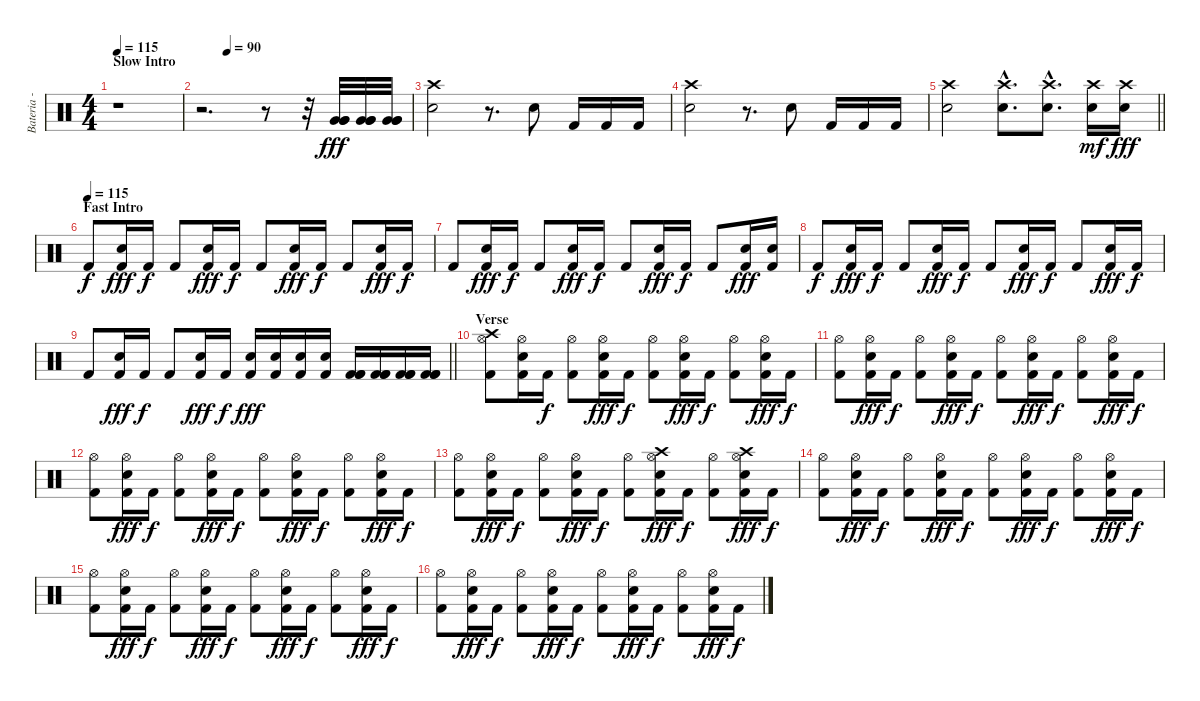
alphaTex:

\track ("Bateria - Larzon" "Bateria - ") {instrument percussion}
\staff {score}
\articulation defaults
\ts (4 4)
\section ("" "Slow Intro")
\tempo 115
\clef neutral
\ks c
r.1{dy fff} |
\tempo (90 0.125)
r.2{d} r.8 r.32 ("Very Low Tom (hit)" "Very Low Tom (hit)" "Very Low Tom (hit)").32 ("Very Low Tom (hit)" "Very Low Tom (hit)" "Very Low Tom (hit)").32 ("Very Low Tom (hit)" "Very Low Tom (hit)" "Very Low Tom (hit)").32 |
("Crash high (hit)" "Electric Snare (hit)").2 r.8{d} "Electric Snare (hit)".8 "Kick (hit) 2".16 "Kick (hit) 2".16 "Kick (hit) 2".16 |
("Crash high (hit)" "Electric Snare (hit)").2 r.8{d} "Electric Snare (hit)".8 "Kick (hit) 2".16 "Kick (hit) 2".16 "Kick (hit) 2".16 |
\barLineRight lightlight
("Crash high (hit)" "Electric Snare (hit)").2 ("Crash high (hit)"{hac} "Electric Snare (hit)"{hac}).8{d} ("Crash high (hit)"{hac} "Electric Snare (hit)"{hac}).8{d} ("Crash high (hit)" "Electric Snare (hit)").16{dy mf} ("Crash high (hit)" "Electric Snare (hit)").16{dy fff} |
\section ("" "Fast Intro")
\tempo (115)
"Kick (hit) 2".8{dy f} ("Kick (hit) 2" "Electric Snare (hit)").16{dy fff} "Kick (hit) 2".16{dy f} "Kick (hit) 2".8 ("Kick (hit) 2" "Electric Snare (hit)").16{dy fff} "Kick (hit) 2".16{dy f} "Kick (hit) 2".8 ("Kick (hit) 2" "Electric Snare (hit)").16{dy fff} "Kick (hit) 2".16{dy f} "Kick (hit) 2".8 ("Kick (hit) 2" "Electric Snare (hit)").16{dy fff} "Kick (hit) 2".16{dy f} |
"Kick (hit) 2".8 ("Kick (hit) 2" "Electric Snare (hit)").16{dy fff} "Kick (hit) 2".16{dy f} "Kick (hit) 2".8 ("Kick (hit) 2" "Electric Snare (hit)").16{dy fff} "Kick (hit) 2".16{dy f} "Kick (hit) 2".8 ("Kick (hit) 2" "Electric Snare (hit)").16{dy fff} "Kick (hit) 2".16{dy f} "Kick (hit) 2".8 ("Kick (hit) 2" "Electric Snare (hit)").16{dy fff} ("Kick (hit) 2" "Electric Snare (hit)").16 |
"Kick (hit) 2".8{dy f} ("Kick (hit) 2" "Electric Snare (hit)").16{dy fff} "Kick (hit) 2".16{dy f} "Kick (hit) 2".8 ("Kick (hit) 2" "Electric Snare (hit)").16{dy fff} "Kick (hit) 2".16{dy f} "Kick (hit) 2".8 ("Kick (hit) 2" "Electric Snare (hit)").16{dy fff} "Kick (hit) 2".16{dy f} "Kick (hit) 2".8 ("Kick (hit) 2" "Electric Snare (hit)").16{dy fff} "Kick (hit) 2".16{dy f} |
\barLineRight lightlight "Kick (hit) 2".8
("Kick (hit) 2" "Electric Snare (hit)").16{dy fff} "Kick (hit) 2".16{dy f} "Kick (hit) 2".8 ("Kick (hit) 2" "Electric Snare (hit)").16{dy fff} "Kick (hit) 2".16{dy f} ("Kick (hit) 2" "Electric Snare (hit)").16{dy fff} ("Kick (hit) 2" "Electric Snare (hit)").16 ("Kick (hit) 2" "Electric Snare (hit)").16 ("Kick (hit) 2" "Electric Snare (hit)").16 ("Kick (hit) 2" "Kick (hit) 2" "Kick (hit) 2").16 ("Kick (hit) 2" "Kick (hit) 2" "Kick (hit) 2").16 ("Kick (hit) 2" "Kick (hit) 2" "Kick (hit) 2").16 ("Kick (hit) 2" "Kick (hit) 2" "Kick (hit) 2").16 |
\section ("" "Verse")
("Kick (hit) 2" "Hi-Hat (open)" "Crash high (hit)").8 ("Kick (hit) 2" "Hi-Hat (open)" "Electric Snare (hit)").16 "Kick (hit) 2".16{dy f} ("Kick (hit) 2" "Hi-Hat (open)").8 ("Kick (hit) 2" "Hi-Hat (open)" "Electric Snare (hit)").16{dy fff} "Kick (hit) 2".16{dy f} ("Kick (hit) 2" "Hi-Hat (open)").8 ("Kick (hit) 2" "Hi-Hat (open)" "Electric Snare (hit)").16{dy fff} "Kick (hit) 2".16{dy f} ("Kick (hit) 2" "Hi-Hat (open)").8 ("Kick (hit) 2" "Hi-Hat (open)" "Electric Snare (hit)").16{dy fff} "Kick (hit) 2".16{dy f} |
("Kick (hit) 2" "Hi-Hat (open)").8 ("Kick (hit) 2" "Hi-Hat (open)" "Electric Snare (hit)").16{dy fff} "Kick (hit) 2".16{dy f} ("Kick (hit) 2" "Hi-Hat (open)").8 ("Kick (hit) 2" "Hi-Hat (open)" "Electric Snare (hit)").16{dy fff} "Kick (hit) 2".16{dy f} ("Kick (hit) 2" "Hi-Hat (open)").8 ("Kick (hit) 2" "Hi-Hat (open)" "Electric Snare (hit)").16{dy fff} "Kick (hit) 2".16{dy f} ("Kick (hit) 2" "Hi-Hat (open)").8 ("Kick (hit) 2" "Hi-Hat (open)" "Electric Snare (hit)").16{dy fff} "Kick (hit) 2".16{dy f} |
("Kick (hit) 2" "Hi-Hat (open)").8 ("Kick (hit) 2" "Hi-Hat (open)" "Electric Snare (hit)").16{dy fff} "Kick (hit) 2".16{dy f} ("Kick (hit) 2" "Hi-Hat (open)").8 ("Kick (hit) 2" "Hi-Hat (open)" "Electric Snare (hit)").16{dy fff} "Kick (hit) 2".16{dy f} ("Kick (hit) 2" "Hi-Hat (open)").8 ("Kick (hit) 2" "Hi-Hat (open)" "Electric Snare (hit)").16{dy fff} "Kick (hit) 2".16{dy f} ("Kick (hit) 2" "Hi-Hat (open)").8 ("Kick (hit) 2" "Hi-Hat (open)" "Electric Snare (hit)").16{dy fff} "Kick (hit) 2".16{dy f} |
("Kick (hit) 2" "Hi-Hat (open)").8 ("Kick (hit) 2" "Hi-Hat (open)" "Electric Snare (hit)").16{dy fff} "Kick (hit) 2".16{dy f} ("Kick (hit) 2" "Hi-Hat (open)").8 ("Kick (hit) 2" "Hi-Hat (open)" "Electric Snare (hit)").16{dy fff} "Kick (hit) 2".16{dy f} ("Kick (hit) 2" "Hi-Hat (open)").8 ("Kick (hit) 2" "Hi-Hat (open)" "Crash high (hit)" "Electric Snare (hit)").16{dy fff} "Kick (hit) 2".16{dy f} ("Kick (hit) 2" "Hi-Hat (open)").8 ("Kick (hit) 2" "Hi-Hat (open)" "Crash high (hit)" "Electric Snare (hit)").16{dy fff} "Kick (hit) 2".16{dy f} |
("Kick (hit) 2" "Hi-Hat (open)").8 ("Kick (hit) 2" "Hi-Hat (open)" "Electric Snare (hit)").16{dy fff} "Kick (hit) 2".16{dy f} ("Kick (hit) 2" "Hi-Hat (open)").8 ("Kick (hit) 2" "Hi-Hat (open)" "Electric Snare (hit)").16{dy fff} "Kick (hit) 2".16{dy f} ("Kick (hit) 2" "Hi-Hat (open)").8 ("Kick (hit) 2" "Hi-Hat (open)" "Electric Snare (hit)").16{dy fff} "Kick (hit) 2".16{dy f} ("Kick (hit) 2" "Hi-Hat (open)").8 ("Kick (hit) 2" "Hi-Hat (open)" "Electric Snare (hit)").16{dy fff} "Kick (hit) 2".16{dy f} |
("Kick (hit) 2" "Hi-Hat (open)").8 ("Kick (hit) 2" "Hi-Hat (open)" "Electric Snare (hit)").16{dy fff} "Kick (hit) 2".16{dy f} ("Kick (hit) 2" "Hi-Hat (open)").8 ("Kick (hit) 2" "Hi-Hat (open)" "Electric Snare (hit)").16{dy fff} "Kick (hit) 2".16{dy f} ("Kick (hit) 2" "Hi-Hat (open)").8 ("Kick (hit) 2" "Hi-Hat (open)" "Electric Snare (hit)").16{dy fff} "Kick (hit) 2".16{dy f} ("Kick (hit) 2" "Hi-Hat (open)").8 ("Kick (hit) 2" "Hi-Hat (open)" "Electric Snare (hit)").16{dy fff} "Kick (hit) 2".16{dy f} |
("Kick (hit) 2" "Hi-Hat (open)").8 ("Kick (hit) 2" "Hi-Hat (open)" "Electric Snare (hit)").16{dy fff} "Kick (hit) 2".16{dy f} ("Kick (hit) 2" "Hi-Hat (open)").8 ("Kick (hit) 2" "Hi-Hat (open)" "Electric Snare (hit)").16{dy fff} "Kick (hit) 2".16{dy f} ("Kick (hit) 2" "Hi-Hat (open)").8 ("Kick (hit) 2" "Hi-Hat (open)" "Electric Snare (hit)").16{dy fff} "Kick (hit) 2".16{dy f} ("Kick (hit) 2" "Hi-Hat (open)").8 ("Kick (hit) 2" "Hi-Hat (open)" "Electric Snare (hit)").16{dy fff} "Kick (hit) 2".16{dy f}
